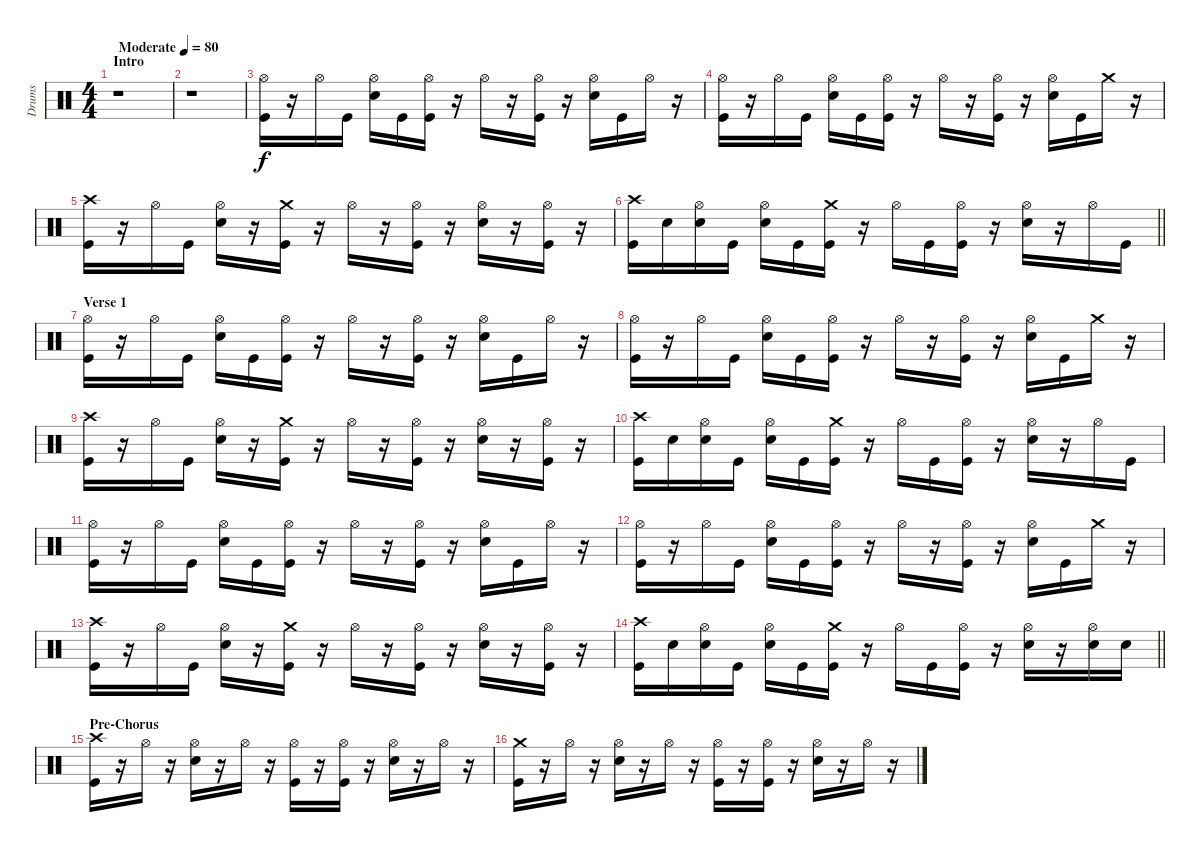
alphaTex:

\track ("Drums" "Drums") {instrument percussion}
\staff {score}
\articulation defaults
\ts (4 4)
\section ("" "Intro")
\tempo (80 "Moderate")
\clef neutral
\ks c
r.1{dy f} |
r.1 |
("Hi-Hat (open)" "Kick (hit)").16 r.16 "Hi-Hat (open)".16 "Kick (hit)".16 ("Hi-Hat (open)" "Electric Snare (hit)").16 "Kick (hit)".16 ("Hi-Hat (open)" "Kick (hit)").16 r.16 "Hi-Hat (open)".16 r.16 ("Hi-Hat (open)" "Kick (hit)").16 r.16 ("Hi-Hat (open)" "Electric Snare (hit)").16 "Kick (hit)".16 "Hi-Hat (open)".16 r.16 |
("Hi-Hat (open)" "Kick (hit)").16 r.16 "Hi-Hat (open)".16 "Kick (hit)".16 ("Hi-Hat (open)" "Electric Snare (hit)").16 "Kick (hit)".16 ("Hi-Hat (open)" "Kick (hit)").16 r.16 "Hi-Hat (open)".16 r.16 ("Hi-Hat (open)" "Kick (hit)").16 r.16 ("Hi-Hat (open)" "Electric Snare (hit)").16 "Kick (hit)".16 "Crash medium (hit)".16 r.16 |
("Crash high (hit)" "Kick (hit)").16 r.16 "Hi-Hat (open)".16 "Kick (hit)".16 ("Hi-Hat (open)" "Electric Snare (hit)").16 r.16 ("Crash medium (hit)" "Kick (hit)").16 r.16 "Hi-Hat (open)".16 r.16 ("Hi-Hat (open)" "Kick (hit)").16 r.16 ("Hi-Hat (open)" "Electric Snare (hit)").16 r.16 ("Hi-Hat (open)" "Kick (hit)").16 r.16 |
\barLineRight lightlight
("Crash high (hit)" "Kick (hit)").16 "Electric Snare (hit)".16 ("Hi-Hat (open)" "Electric Snare (hit)").16 "Kick (hit)".16 ("Hi-Hat (open)" "Electric Snare (hit)").16 "Kick (hit)".16 ("Crash medium (hit)" "Kick (hit)").16 r.16 "Hi-Hat (open)".16 "Kick (hit)".16 ("Hi-Hat (open)" "Kick (hit)").16 r.16 ("Hi-Hat (open)" "Electric Snare (hit)").16 r.16 "Hi-Hat (open)".16 "Kick (hit)".16 |
\section ("" "Verse 1")
("Hi-Hat (open)" "Kick (hit)").16 r.16 "Hi-Hat (open)".16 "Kick (hit)".16 ("Hi-Hat (open)" "Electric Snare (hit)").16 "Kick (hit)".16 ("Hi-Hat (open)" "Kick (hit)").16 r.16 "Hi-Hat (open)".16 r.16 ("Hi-Hat (open)" "Kick (hit)").16 r.16 ("Hi-Hat (open)" "Electric Snare (hit)").16 "Kick (hit)".16 "Hi-Hat (open)".16 r.16 |
("Hi-Hat (open)" "Kick (hit)").16 r.16 "Hi-Hat (open)".16 "Kick (hit)".16 ("Hi-Hat (open)" "Electric Snare (hit)").16 "Kick (hit)".16 ("Hi-Hat (open)" "Kick (hit)").16 r.16 "Hi-Hat (open)".16 r.16 ("Hi-Hat (open)" "Kick (hit)").16 r.16 ("Hi-Hat (open)" "Electric Snare (hit)").16 "Kick (hit)".16 "Crash medium (hit)".16 r.16 |
("Crash high (hit)" "Kick (hit)").16 r.16 "Hi-Hat (open)".16 "Kick (hit)".16 ("Hi-Hat (open)" "Electric Snare (hit)").16 r.16 ("Crash medium (hit)" "Kick (hit)").16 r.16 "Hi-Hat (open)".16 r.16 ("Hi-Hat (open)" "Kick (hit)").16 r.16 ("Hi-Hat (open)" "Electric Snare (hit)").16 r.16 ("Hi-Hat (open)" "Kick (hit)").16 r.16 |
("Crash high (hit)" "Kick (hit)").16 "Electric Snare (hit)".16 ("Hi-Hat (open)" "Electric Snare (hit)").16 "Kick (hit)".16 ("Hi-Hat (open)" "Electric Snare (hit)").16 "Kick (hit)".16 ("Crash medium (hit)" "Kick (hit)").16 r.16 "Hi-Hat (open)".16 "Kick (hit)".16 ("Hi-Hat (open)" "Kick (hit)").16 r.16 ("Hi-Hat (open)" "Electric Snare (hit)").16 r.16 "Hi-Hat (open)".16 "Kick (hit)".16 |
("Hi-Hat (open)" "Kick (hit)").16 r.16 "Hi-Hat (open)".16 "Kick (hit)".16 ("Hi-Hat (open)" "Electric Snare (hit)").16 "Kick (hit)".16 ("Hi-Hat (open)" "Kick (hit)").16 r.16 "Hi-Hat (open)".16 r.16 ("Hi-Hat (open)" "Kick (hit)").16 r.16 ("Hi-Hat (open)" "Electric Snare (hit)").16 "Kick (hit)".16 "Hi-Hat (open)".16 r.16 |
("Hi-Hat (open)" "Kick (hit)").16 r.16 "Hi-Hat (open)".16 "Kick (hit)".16 ("Hi-Hat (open)" "Electric Snare (hit)").16 "Kick (hit)".16 ("Hi-Hat (open)" "Kick (hit)").16 r.16 "Hi-Hat (open)".16 r.16 ("Hi-Hat (open)" "Kick (hit)").16 r.16 ("Hi-Hat (open)" "Electric Snare (hit)").16 "Kick (hit)".16 "Crash medium (hit)".16 r.16 |
("Crash high (hit)" "Kick (hit)").16 r.16 "Hi-Hat (open)".16 "Kick (hit)".16 ("Hi-Hat (open)" "Electric Snare (hit)").16 r.16 ("Crash medium (hit)" "Kick (hit)").16 r.16 "Hi-Hat (open)".16 r.16 ("Hi-Hat (open)" "Kick (hit)").16 r.16 ("Hi-Hat (open)" "Electric Snare (hit)").16 r.16 ("Hi-Hat (open)" "Kick (hit)").16 r.16 |
\barLineRight lightlight
("Crash high (hit)" "Kick (hit)").16 "Electric Snare (hit)".16 ("Hi-Hat (open)" "Electric Snare (hit)").16 "Kick (hit)".16 ("Hi-Hat (open)" "Electric Snare (hit)").16 "Kick (hit)".16 ("Crash medium (hit)" "Kick (hit)").16 r.16 "Hi-Hat (open)".16 "Kick (hit)".16 ("Hi-Hat (open)" "Kick (hit)").16 r.16 ("Hi-Hat (open)" "Electric Snare (hit)").16 r.16 ("Hi-Hat (open)" "Electric Snare (hit)").16 "Electric Snare (hit)".16 |
\section ("" "Pre-Chorus")
("Crash high (hit)" "Kick (hit)").16 r.16 "Hi-Hat (open)".16 r.16 ("Hi-Hat (open)" "Electric Snare (hit)").16 r.16 "Hi-Hat (open)".16 r.16 ("Hi-Hat (open)" "Kick (hit)").16 r.16 ("Hi-Hat (open)" "Kick (hit)").16 r.16 ("Hi-Hat (open)" "Electric Snare (hit)").16 r.16 "Hi-Hat (open)".16 r.16 |
("Crash medium (hit)" "Kick (hit)").16 r.16 "Hi-Hat (open)".16 r.16 ("Hi-Hat (open)" "Electric Snare (hit)").16 r.16 "Hi-Hat (open)".16 r.16 ("Hi-Hat (open)" "Kick (hit)").16 r.16 ("Hi-Hat (open)" "Kick (hit)").16 r.16 ("Hi-Hat (open)" "Electric Snare (hit)").16 r.16 "Hi-Hat (open)".16 r.16
